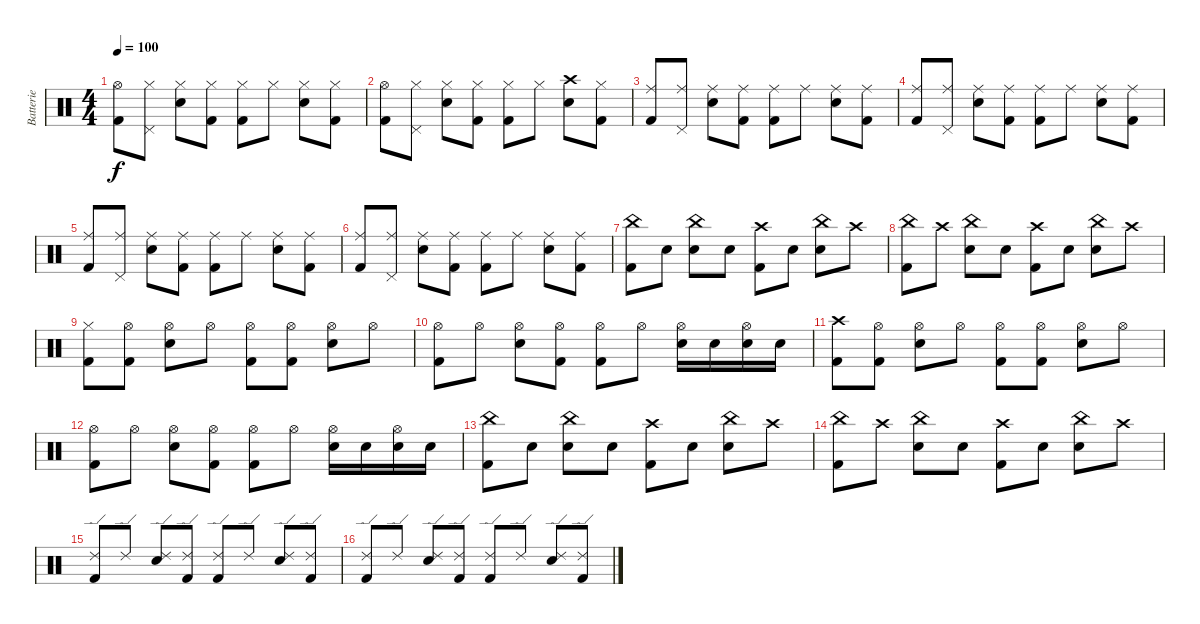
\track ("Batterie" "Batterie") {instrument percussion}
\staff {score}
\articulation defaults
\ts (4 4)
\tempo 100
\clef neutral
\ks c
("Hi-Hat (open)" "Kick (hit) 2").8{dy f} ("Hi-Hat (closed)" "Pedal Hi-Hat (hit)").8 ("Hi-Hat (closed)" "Electric Snare (hit)").8 ("Hi-Hat (closed)" "Kick (hit) 2").8 ("Hi-Hat (closed)" "Kick (hit) 2").8 "Hi-Hat (closed)".8 ("Hi-Hat (closed)" "Electric Snare (hit)").8 ("Hi-Hat (closed)" "Kick (hit) 2").8 |
("Hi-Hat (open)" "Kick (hit) 2").8 ("Hi-Hat (closed)" "Pedal Hi-Hat (hit)").8 ("Hi-Hat (closed)" "Electric Snare (hit)").8 ("Hi-Hat (closed)" "Kick (hit) 2").8 ("Hi-Hat (closed)" "Kick (hit) 2").8 "Hi-Hat (closed)".8 ("Crash high (hit)" "Electric Snare (hit)").8 ("Hi-Hat (closed)" "Kick (hit) 2").8 |
("Ride (middle)" "Kick (hit) 2").8 ("Ride (middle)" "Pedal Hi-Hat (hit)").8 ("Ride (middle)" "Electric Snare (hit)").8 ("Ride (middle)" "Kick (hit) 2").8 ("Ride (middle)" "Kick (hit) 2").8 "Ride (middle)".8 ("Ride (middle)" "Electric Snare (hit)").8 ("Ride (middle)" "Kick (hit) 2").8 |
("Ride (middle)" "Kick (hit) 2").8 ("Ride (middle)" "Pedal Hi-Hat (hit)").8 ("Ride (middle)" "Electric Snare (hit)").8 ("Ride (middle)" "Kick (hit) 2").8 ("Ride (middle)" "Kick (hit) 2").8 "Ride (middle)".8 ("Ride (middle)" "Electric Snare (hit)").8 ("Ride (middle)" "Kick (hit) 2").8 |
("Ride (middle)" "Kick (hit) 2").8 ("Ride (middle)" "Pedal Hi-Hat (hit)").8 ("Ride (middle)" "Electric Snare (hit)").8 ("Ride (middle)" "Kick (hit) 2").8 ("Ride (middle)" "Kick (hit) 2").8 "Ride (middle)".8 ("Ride (middle)" "Electric Snare (hit)").8 ("Ride (middle)" "Kick (hit) 2").8 |
("Ride (middle)" "Kick (hit) 2").8 ("Ride (middle)" "Pedal Hi-Hat (hit)").8 ("Ride (middle)" "Electric Snare (hit)").8 ("Ride (middle)" "Kick (hit) 2").8 ("Ride (middle)" "Kick (hit) 2").8 "Ride (middle)".8 ("Ride (middle)" "Electric Snare (hit)").8 ("Ride (middle)" "Kick (hit) 2").8 |
("China (hit)" "Kick (hit) 2").8 "Snare (hit)".8 ("China (hit)" "Electric Snare (hit)").8 "Snare (hit)".8 ("Crash high (hit)" "Kick (hit) 2").8 "Snare (hit)".8 ("China (hit)" "Electric Snare (hit)").8 "Crash high (hit)".8 |
("China (hit)" "Kick (hit) 2").8 "Crash high (hit)".8 ("China (hit)" "Electric Snare (hit)").8 "Snare (hit)".8 ("Crash high (hit)" "Kick (hit) 2").8 "Snare (hit)".8 ("China (hit)" "Electric Snare (hit)").8 "Crash high (hit)".8 |
("Hi-Hat (closed)" "Kick (hit) 2").8 ("Hi-Hat (open)" "Kick (hit) 2").8 ("Hi-Hat (open)" "Electric Snare (hit)").8 "Hi-Hat (open)".8 ("Hi-Hat (open)" "Kick (hit) 2").8 ("Hi-Hat (open)" "Kick (hit) 2").8 ("Hi-Hat (open)" "Electric Snare (hit)").8 "Hi-Hat (open)".8 |
("Hi-Hat (open)" "Kick (hit) 2").8 "Hi-Hat (open)".8 ("Hi-Hat (open)" "Electric Snare (hit)").8 ("Hi-Hat (open)" "Kick (hit) 2").8 ("Hi-Hat (open)" "Kick (hit) 2").8 "Hi-Hat (open)".8 ("Hi-Hat (open)" "Electric Snare (hit)").16 "Electric Snare (hit)".16 ("Hi-Hat (open)" "Electric Snare (hit)").16 "Electric Snare (hit)".16 |
("Crash high (hit)" "Kick (hit) 2").8 ("Hi-Hat (open)" "Kick (hit) 2").8 ("Hi-Hat (open)" "Electric Snare (hit)").8 "Hi-Hat (open)".8 ("Hi-Hat (open)" "Kick (hit) 2").8 ("Hi-Hat (open)" "Kick (hit) 2").8 ("Hi-Hat (open)" "Electric Snare (hit)").8 "Hi-Hat (open)".8 |
("Hi-Hat (open)" "Kick (hit) 2").8 "Hi-Hat (open)".8 ("Hi-Hat (open)" "Electric Snare (hit)").8 ("Hi-Hat (open)" "Kick (hit) 2").8 ("Hi-Hat (open)" "Kick (hit) 2").8 "Hi-Hat (open)".8 ("Hi-Hat (open)" "Electric Snare (hit)").16 "Electric Snare (hit)".16 ("Hi-Hat (open)" "Electric Snare (hit)").16 "Electric Snare (hit)".16 |
("China (hit)" "Kick (hit) 2").8 "Snare (hit)".8 ("China (hit)" "Electric Snare (hit)").8 "Snare (hit)".8 ("Crash high (hit)" "Kick (hit) 2").8 "Snare (hit)".8 ("China (hit)" "Electric Snare (hit)").8 "Crash high (hit)".8 |
("China (hit)" "Kick (hit) 2").8 "Crash high (hit)".8 ("China (hit)" "Electric Snare (hit)").8 "Snare (hit)".8 ("Crash high (hit)" "Kick (hit) 2").8 "Snare (hit)".8 ("China (hit)" "Electric Snare (hit)").8 "Crash high (hit)".8 |
("Ride (edge) 2" "Kick (hit) 2").8 "Ride (edge) 2".8 ("Ride (edge) 2" "Electric Snare (hit)").8 ("Ride (edge) 2" "Kick (hit) 2").8 ("Ride (edge) 2" "Kick (hit) 2").8 "Ride (edge) 2".8 ("Ride (edge) 2" "Electric Snare (hit)").8 ("Ride (edge) 2" "Kick (hit) 2").8 |
("Ride (edge) 2" "Kick (hit) 2").8 "Ride (edge) 2".8 ("Ride (edge) 2" "Electric Snare (hit)").8 ("Ride (edge) 2" "Kick (hit) 2").8 ("Ride (edge) 2" "Kick (hit) 2").8 "Ride (edge) 2".8 ("Ride (edge) 2" "Electric Snare (hit)").8 ("Ride (edge) 2" "Kick (hit) 2").8
